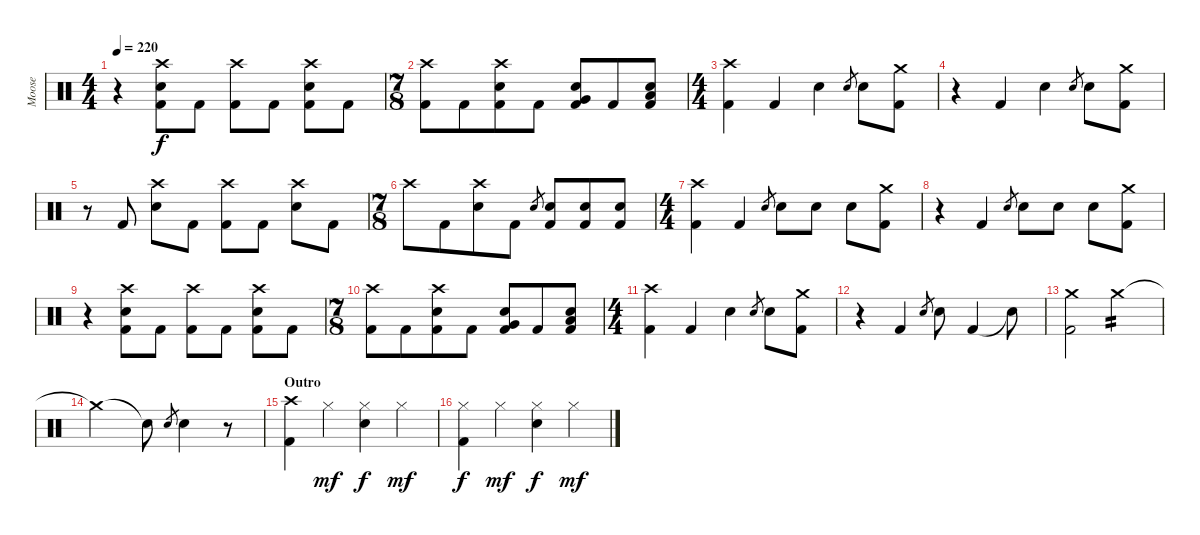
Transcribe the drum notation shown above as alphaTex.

\track ("Moose" "Moose") {instrument percussion}
\staff {score}
\articulation defaults
\ts (4 4)
\tempo 220
\clef neutral
\ks c
r.4{dy f} ("Kick (hit) 2" "Snare (hit) 2" "Crash high (hit)").8 "Kick (hit) 2".8 ("Kick (hit) 2" "Crash high (hit)").8 "Kick (hit) 2".8 ("Kick (hit) 2" "Snare (hit) 2" "Crash high (hit)").8 "Kick (hit) 2".8 |
\ts (7 8)
("Kick (hit) 2" "Crash high (hit)").8 "Kick (hit) 2".8 ("Kick (hit) 2" "Snare (hit) 2" "Crash high (hit)").8 "Kick (hit) 2".8 ("Kick (hit) 2" "Very Low Tom (hit)" "Snare (hit) 2").8 "Kick (hit) 2".8 ("Kick (hit) 2" "Low Floor Tom (hit)" "Snare (hit) 2").8 |
\ts (4 4)
("Kick (hit) 2" "Crash high (hit)").4 "Kick (hit) 2".4 "Snare (hit) 2".4 "Snare (hit) 2".8{gr} "Snare (hit) 2".8 ("Kick (hit) 2" "Crash medium (hit)").8 |
r.4 "Kick (hit) 2".4 "Snare (hit) 2".4 "Snare (hit) 2".8{gr} "Snare (hit) 2".8 ("Kick (hit) 2" "Crash medium (hit)").8 |
r.8 "Kick (hit) 2".8 ("Snare (hit) 2" "Crash high (hit)").8 "Kick (hit) 2".8 ("Kick (hit) 2" "Crash high (hit)").8 "Kick (hit) 2".8 ("Snare (hit) 2" "Crash high (hit)").8 "Kick (hit) 2".8 |
\ts (7 8)
"Crash high (hit)".8 "Kick (hit) 2".8 ("Snare (hit) 2" "Crash high (hit)").8 "Kick (hit) 2".8 "Snare (hit) 2".8{gr} ("Kick (hit) 2" "Snare (hit) 2").8 ("Kick (hit) 2" "Snare (hit) 2").8 ("Kick (hit) 2" "Snare (hit) 2").8 |
\ts (4 4)
("Kick (hit) 2" "Crash high (hit)").4 "Kick (hit) 2".4 "Snare (hit) 2".8{gr} "Snare (hit) 2".8 "Snare (hit) 2".8 "Snare (hit) 2".8 ("Kick (hit) 2" "Crash medium (hit)").8 |
r.4 "Kick (hit) 2".4 "Snare (hit) 2".8{gr} "Snare (hit) 2".8 "Snare (hit) 2".8 "Snare (hit) 2".8 ("Kick (hit) 2" "Crash medium (hit)").8 |
r.4 ("Kick (hit) 2" "Snare (hit) 2" "Crash high (hit)").8 "Kick (hit) 2".8 ("Kick (hit) 2" "Crash high (hit)").8 "Kick (hit) 2".8 ("Kick (hit) 2" "Snare (hit) 2" "Crash high (hit)").8 "Kick (hit) 2".8 |
\ts (7 8)
("Kick (hit) 2" "Crash high (hit)").8 "Kick (hit) 2".8 ("Kick (hit) 2" "Snare (hit) 2" "Crash high (hit)").8 "Kick (hit) 2".8 ("Kick (hit) 2" "Very Low Tom (hit)" "Snare (hit) 2").8 "Kick (hit) 2".8 ("Kick (hit) 2" "Low Floor Tom (hit)" "Snare (hit) 2").8 |
\ts (4 4)
("Kick (hit) 2" "Crash high (hit)").4 "Kick (hit) 2".4 "Snare (hit) 2".4 "Snare (hit) 2".8{gr} "Snare (hit) 2".8 ("Kick (hit) 2" "Crash medium (hit)").8 |
r.4 "Kick (hit) 2".4 "Snare (hit) 2".8{gr} "Snare (hit) 2".8 "Kick (hit) 2".4 "Snare (hit)"{t}.8 |
("Kick (hit) 2" "Crash medium (hit)").2 "Crash medium (hit)".2{tp 2} |
"Crash medium (hit)"{t}.2 "Snare (hit)"{t}.8 "Snare (hit) 2".8{gr} "Snare (hit) 2".4 r.8 |
\section ("" "Outro")
("Kick (hit) 2" "Crash high (hit)").4 "Hi-Hat (closed)".4{dy mf} ("Snare (hit) 2" "Hi-Hat (closed)").4{dy f} "Hi-Hat (closed)".4{dy mf} |
("Kick (hit) 2" "Hi-Hat (closed)").4{dy f} "Hi-Hat (closed)".4{dy mf} ("Snare (hit) 2" "Hi-Hat (closed)").4{dy f} "Hi-Hat (closed)".4{dy mf}
